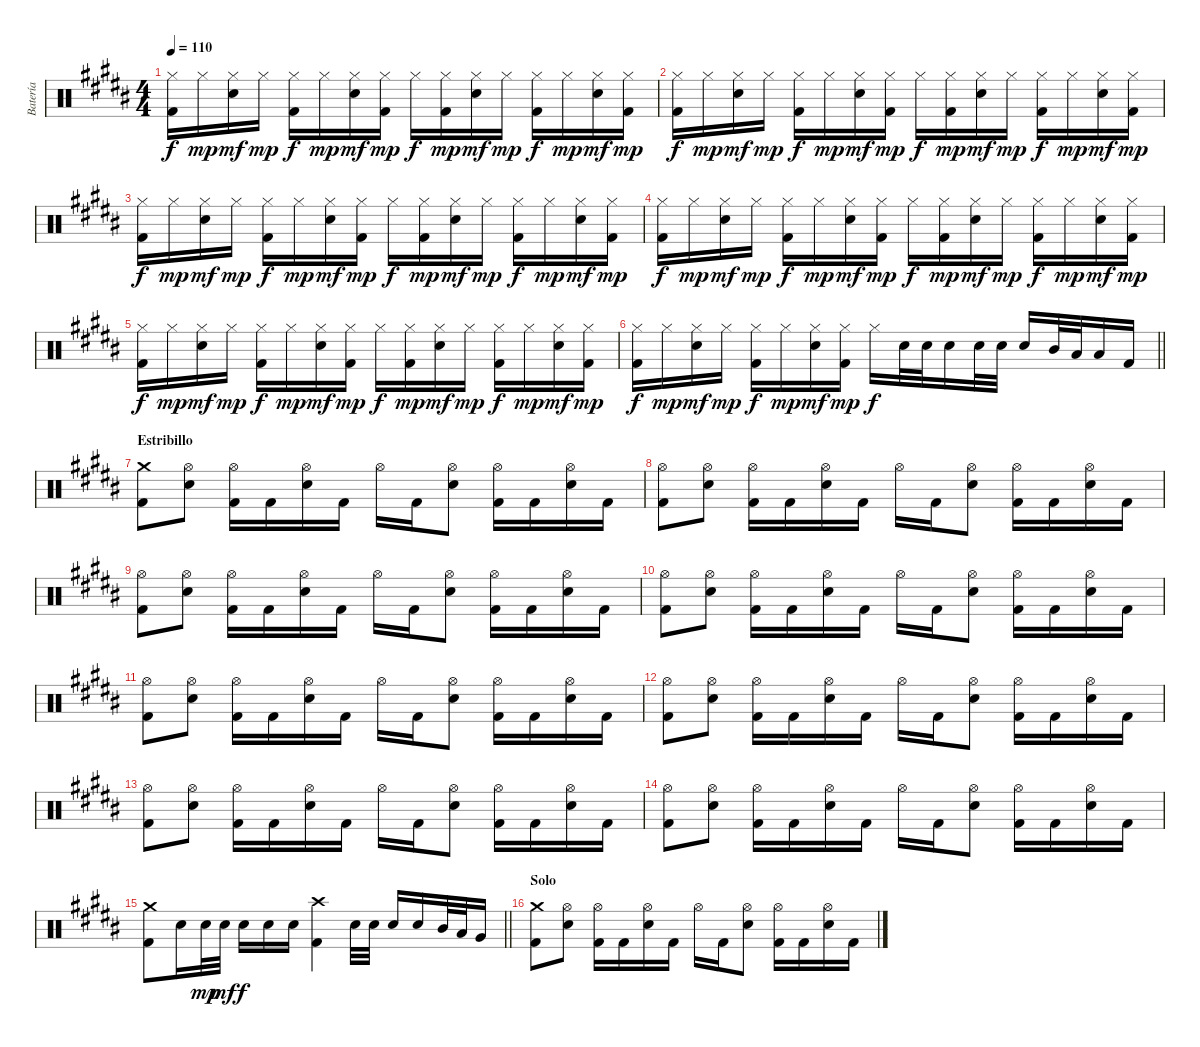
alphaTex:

\track ("Batería" "Batería") {instrument percussion}
\staff {score}
\articulation defaults
\ts (4 4)
\tempo 110
\clef neutral
\ks b
("Hi-Hat (closed)" "Kick (hit) 2").16{dy f} "Hi-Hat (closed)".16{dy mp} ("Hi-Hat (closed)" "Electric Snare (hit)").16{dy mf} "Hi-Hat (closed)".16{dy mp} ("Hi-Hat (closed)" "Kick (hit) 2").16{dy f} "Hi-Hat (closed)".16{dy mp} ("Hi-Hat (closed)" "Electric Snare (hit)").16{dy mf} ("Hi-Hat (closed)" "Kick (hit) 2").16{dy mp} "Hi-Hat (closed)".16{dy f} ("Hi-Hat (closed)" "Kick (hit) 2").16{dy mp} ("Hi-Hat (closed)" "Electric Snare (hit)").16{dy mf} "Hi-Hat (closed)".16{dy mp} ("Hi-Hat (closed)" "Kick (hit) 2").16{dy f} "Hi-Hat (closed)".16{dy mp} ("Hi-Hat (closed)" "Electric Snare (hit)").16{dy mf} ("Hi-Hat (closed)" "Kick (hit) 2").16{dy mp} |
("Hi-Hat (closed)" "Kick (hit) 2").16{dy f} "Hi-Hat (closed)".16{dy mp} ("Hi-Hat (closed)" "Electric Snare (hit)").16{dy mf} "Hi-Hat (closed)".16{dy mp} ("Hi-Hat (closed)" "Kick (hit) 2").16{dy f} "Hi-Hat (closed)".16{dy mp} ("Hi-Hat (closed)" "Electric Snare (hit)").16{dy mf} ("Hi-Hat (closed)" "Kick (hit) 2").16{dy mp} "Hi-Hat (closed)".16{dy f} ("Hi-Hat (closed)" "Kick (hit) 2").16{dy mp} ("Hi-Hat (closed)" "Electric Snare (hit)").16{dy mf} "Hi-Hat (closed)".16{dy mp} ("Hi-Hat (closed)" "Kick (hit) 2").16{dy f} "Hi-Hat (closed)".16{dy mp} ("Hi-Hat (closed)" "Electric Snare (hit)").16{dy mf} ("Hi-Hat (closed)" "Kick (hit) 2").16{dy mp} |
("Hi-Hat (closed)" "Kick (hit) 2").16{dy f} "Hi-Hat (closed)".16{dy mp} ("Hi-Hat (closed)" "Electric Snare (hit)").16{dy mf} "Hi-Hat (closed)".16{dy mp} ("Hi-Hat (closed)" "Kick (hit) 2").16{dy f} "Hi-Hat (closed)".16{dy mp} ("Hi-Hat (closed)" "Electric Snare (hit)").16{dy mf} ("Hi-Hat (closed)" "Kick (hit) 2").16{dy mp} "Hi-Hat (closed)".16{dy f} ("Hi-Hat (closed)" "Kick (hit) 2").16{dy mp} ("Hi-Hat (closed)" "Electric Snare (hit)").16{dy mf} "Hi-Hat (closed)".16{dy mp} ("Hi-Hat (closed)" "Kick (hit) 2").16{dy f} "Hi-Hat (closed)".16{dy mp} ("Hi-Hat (closed)" "Electric Snare (hit)").16{dy mf} ("Hi-Hat (closed)" "Kick (hit) 2").16{dy mp} |
("Hi-Hat (closed)" "Kick (hit) 2").16{dy f} "Hi-Hat (closed)".16{dy mp} ("Hi-Hat (closed)" "Electric Snare (hit)").16{dy mf} "Hi-Hat (closed)".16{dy mp} ("Hi-Hat (closed)" "Kick (hit) 2").16{dy f} "Hi-Hat (closed)".16{dy mp} ("Hi-Hat (closed)" "Electric Snare (hit)").16{dy mf} ("Hi-Hat (closed)" "Kick (hit) 2").16{dy mp} "Hi-Hat (closed)".16{dy f} ("Hi-Hat (closed)" "Kick (hit) 2").16{dy mp} ("Hi-Hat (closed)" "Electric Snare (hit)").16{dy mf} "Hi-Hat (closed)".16{dy mp} ("Hi-Hat (closed)" "Kick (hit) 2").16{dy f} "Hi-Hat (closed)".16{dy mp} ("Hi-Hat (closed)" "Electric Snare (hit)").16{dy mf} ("Hi-Hat (closed)" "Kick (hit) 2").16{dy mp} |
("Hi-Hat (closed)" "Kick (hit) 2").16{dy f} "Hi-Hat (closed)".16{dy mp} ("Hi-Hat (closed)" "Electric Snare (hit)").16{dy mf} "Hi-Hat (closed)".16{dy mp} ("Hi-Hat (closed)" "Kick (hit) 2").16{dy f} "Hi-Hat (closed)".16{dy mp} ("Hi-Hat (closed)" "Electric Snare (hit)").16{dy mf} ("Hi-Hat (closed)" "Kick (hit) 2").16{dy mp} "Hi-Hat (closed)".16{dy f} ("Hi-Hat (closed)" "Kick (hit) 2").16{dy mp} ("Hi-Hat (closed)" "Electric Snare (hit)").16{dy mf} "Hi-Hat (closed)".16{dy mp} ("Hi-Hat (closed)" "Kick (hit) 2").16{dy f} "Hi-Hat (closed)".16{dy mp} ("Hi-Hat (closed)" "Electric Snare (hit)").16{dy mf} ("Hi-Hat (closed)" "Kick (hit) 2").16{dy mp} |
\barLineRight lightlight
("Hi-Hat (closed)" "Kick (hit) 2").16{dy f} "Hi-Hat (closed)".16{dy mp} ("Hi-Hat (closed)" "Electric Snare (hit)").16{dy mf} "Hi-Hat (closed)".16{dy mp} ("Hi-Hat (closed)" "Kick (hit) 2").16{dy f} "Hi-Hat (closed)".16{dy mp} ("Hi-Hat (closed)" "Electric Snare (hit)").16{dy mf} ("Hi-Hat (closed)" "Kick (hit) 2").16{dy mp} "Hi-Hat (closed)".16{dy f} "Electric Snare (hit)".32 "Electric Snare (hit)".32 "Electric Snare (hit)".16 "Electric Snare (hit)".32 "Electric Snare (hit)".32 "Electric Snare (hit)".16 "Mid Tom (hit)".32 "Low Tom (hit)".32 "Low Floor Tom (hit)".16 "Kick (hit) 2".16 |
\section ("" "Estribillo")
("Crash medium (hit)" "Kick (hit) 2").8 ("Hi-Hat (open)" "Electric Snare (hit)").8 ("Hi-Hat (open)" "Kick (hit) 2").16 "Kick (hit) 2".16 ("Hi-Hat (open)" "Electric Snare (hit)").16 "Kick (hit) 2".16 "Hi-Hat (open)".16 "Kick (hit) 2".16 ("Hi-Hat (open)" "Electric Snare (hit)").8 ("Hi-Hat (open)" "Kick (hit) 2").16 "Kick (hit) 2".16 ("Hi-Hat (open)" "Electric Snare (hit)").16 "Kick (hit) 2".16 |
("Hi-Hat (open)" "Kick (hit) 2").8 ("Hi-Hat (open)" "Electric Snare (hit)").8 ("Hi-Hat (open)" "Kick (hit) 2").16 "Kick (hit) 2".16 ("Hi-Hat (open)" "Electric Snare (hit)").16 "Kick (hit) 2".16 "Hi-Hat (open)".16 "Kick (hit) 2".16 ("Hi-Hat (open)" "Electric Snare (hit)").8 ("Hi-Hat (open)" "Kick (hit) 2").16 "Kick (hit) 2".16 ("Hi-Hat (open)" "Electric Snare (hit)").16 "Kick (hit) 2".16 |
("Hi-Hat (open)" "Kick (hit) 2").8 ("Hi-Hat (open)" "Electric Snare (hit)").8 ("Hi-Hat (open)" "Kick (hit) 2").16 "Kick (hit) 2".16 ("Hi-Hat (open)" "Electric Snare (hit)").16 "Kick (hit) 2".16 "Hi-Hat (open)".16 "Kick (hit) 2".16 ("Hi-Hat (open)" "Electric Snare (hit)").8 ("Hi-Hat (open)" "Kick (hit) 2").16 "Kick (hit) 2".16 ("Hi-Hat (open)" "Electric Snare (hit)").16 "Kick (hit) 2".16 |
("Hi-Hat (open)" "Kick (hit) 2").8 ("Hi-Hat (open)" "Electric Snare (hit)").8 ("Hi-Hat (open)" "Kick (hit) 2").16 "Kick (hit) 2".16 ("Hi-Hat (open)" "Electric Snare (hit)").16 "Kick (hit) 2".16 "Hi-Hat (open)".16 "Kick (hit) 2".16 ("Hi-Hat (open)" "Electric Snare (hit)").8 ("Hi-Hat (open)" "Kick (hit) 2").16 "Kick (hit) 2".16 ("Hi-Hat (open)" "Electric Snare (hit)").16 "Kick (hit) 2".16 |
("Hi-Hat (open)" "Kick (hit) 2").8 ("Hi-Hat (open)" "Electric Snare (hit)").8 ("Hi-Hat (open)" "Kick (hit) 2").16 "Kick (hit) 2".16 ("Hi-Hat (open)" "Electric Snare (hit)").16 "Kick (hit) 2".16 "Hi-Hat (open)".16 "Kick (hit) 2".16 ("Hi-Hat (open)" "Electric Snare (hit)").8 ("Hi-Hat (open)" "Kick (hit) 2").16 "Kick (hit) 2".16 ("Hi-Hat (open)" "Electric Snare (hit)").16 "Kick (hit) 2".16 |
("Hi-Hat (open)" "Kick (hit) 2").8 ("Hi-Hat (open)" "Electric Snare (hit)").8 ("Hi-Hat (open)" "Kick (hit) 2").16 "Kick (hit) 2".16 ("Hi-Hat (open)" "Electric Snare (hit)").16 "Kick (hit) 2".16 "Hi-Hat (open)".16 "Kick (hit) 2".16 ("Hi-Hat (open)" "Electric Snare (hit)").8 ("Hi-Hat (open)" "Kick (hit) 2").16 "Kick (hit) 2".16 ("Hi-Hat (open)" "Electric Snare (hit)").16 "Kick (hit) 2".16 |
("Hi-Hat (open)" "Kick (hit) 2").8 ("Hi-Hat (open)" "Electric Snare (hit)").8 ("Hi-Hat (open)" "Kick (hit) 2").16 "Kick (hit) 2".16 ("Hi-Hat (open)" "Electric Snare (hit)").16 "Kick (hit) 2".16 "Hi-Hat (open)".16 "Kick (hit) 2".16 ("Hi-Hat (open)" "Electric Snare (hit)").8 ("Hi-Hat (open)" "Kick (hit) 2").16 "Kick (hit) 2".16 ("Hi-Hat (open)" "Electric Snare (hit)").16 "Kick (hit) 2".16 |
("Hi-Hat (open)" "Kick (hit) 2").8 ("Hi-Hat (open)" "Electric Snare (hit)").8 ("Hi-Hat (open)" "Kick (hit) 2").16 "Kick (hit) 2".16 ("Hi-Hat (open)" "Electric Snare (hit)").16 "Kick (hit) 2".16 "Hi-Hat (open)".16 "Kick (hit) 2".16 ("Hi-Hat (open)" "Electric Snare (hit)").8 ("Hi-Hat (open)" "Kick (hit) 2").16 "Kick (hit) 2".16 ("Hi-Hat (open)" "Electric Snare (hit)").16 "Kick (hit) 2".16 |
\barLineRight lightlight
("Crash medium (hit)" "Kick (hit) 2").8 "Electric Snare (hit)".16 "Electric Snare (hit)".32{dy mp} "Electric Snare (hit)".32{dy mf} "Electric Snare (hit)".16{dy f} "Electric Snare (hit)".16 "Electric Snare (hit)".16 ("Crash high (hit)" "Kick (hit) 2").4 "Electric Snare (hit)".32 "Electric Snare (hit)".32 "Electric Snare (hit)".16 "Electric Snare (hit)".16 "Mid Tom (hit)".32 "Low Tom (hit)".32 "Very Low Tom (hit)".16 |
\section ("" "Solo")
("Crash medium (hit)" "Kick (hit) 2").8 ("Hi-Hat (open)" "Electric Snare (hit)").8 ("Hi-Hat (open)" "Kick (hit) 2").16 "Kick (hit) 2".16 ("Hi-Hat (open)" "Electric Snare (hit)").16 "Kick (hit) 2".16 "Hi-Hat (open)".16 "Kick (hit) 2".16 ("Hi-Hat (open)" "Electric Snare (hit)").8 ("Hi-Hat (open)" "Kick (hit) 2").16 "Kick (hit) 2".16 ("Hi-Hat (open)" "Electric Snare (hit)").16 "Kick (hit) 2".16
